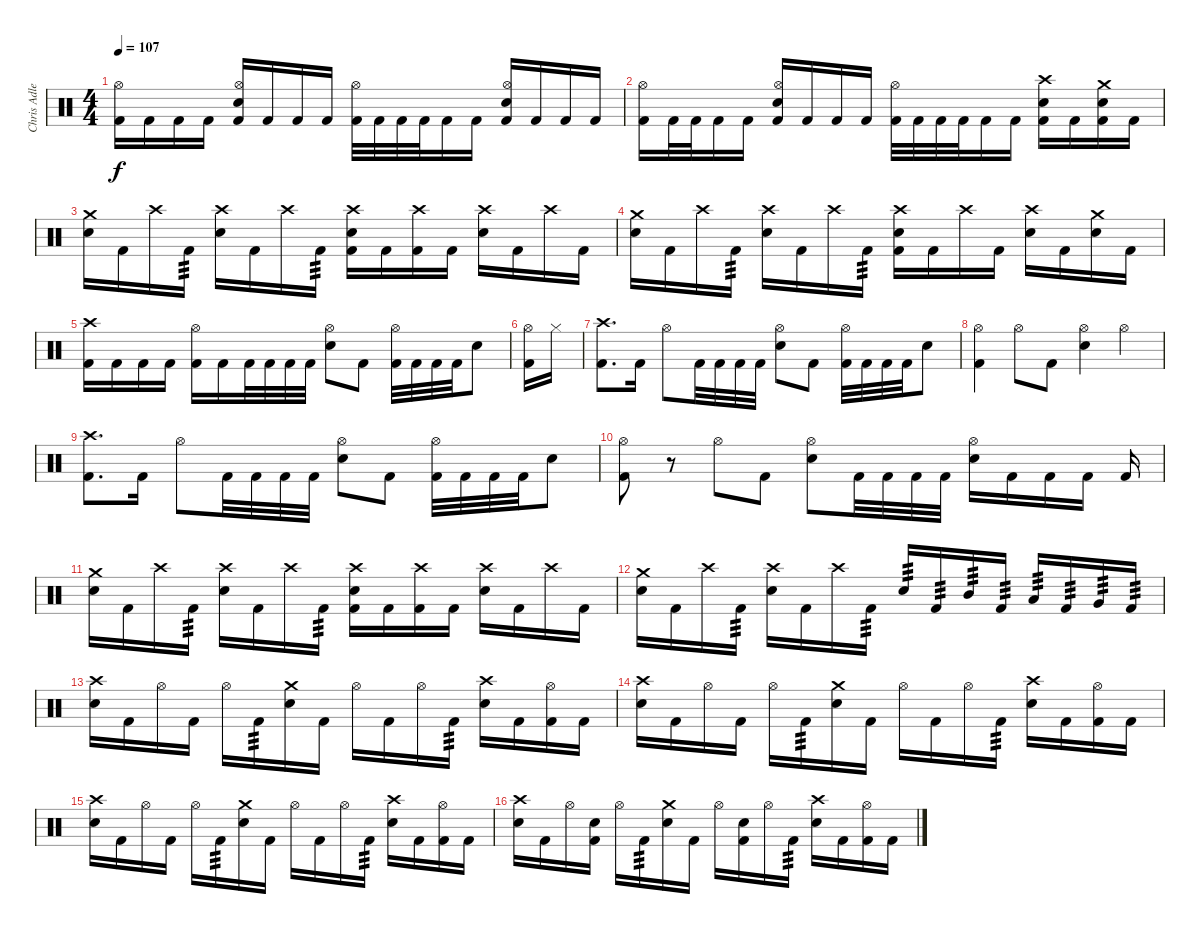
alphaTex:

\track ("Chris Adler" "Chris Adle") {instrument percussion}
\staff {score}
\articulation defaults
\ts (4 4)
\tempo 107
\clef neutral
\ks c
("Kick (hit) 2" "Hi-Hat (open)").16{dy f} "Kick (hit) 2".16 "Kick (hit) 2".16 "Kick (hit) 2".16 ("Kick (hit) 2" "Electric Snare (hit)" "Hi-Hat (open)").16 "Kick (hit) 2".16 "Kick (hit) 2".16 "Kick (hit) 2".16 ("Kick (hit) 2" "Hi-Hat (open)").32 "Kick (hit) 2".32 "Kick (hit) 2".32 "Kick (hit) 2".32 "Kick (hit) 2".16 "Kick (hit) 2".16 ("Kick (hit) 2" "Electric Snare (hit)" "Hi-Hat (open)").16 "Kick (hit) 2".16 "Kick (hit) 2".16 "Kick (hit) 2".16 |
("Kick (hit) 2" "Hi-Hat (open)").16 "Kick (hit) 2".32 "Kick (hit) 2".32 "Kick (hit) 2".16 "Kick (hit) 2".16 ("Kick (hit) 2" "Electric Snare (hit)" "Hi-Hat (open)").16 "Kick (hit) 2".16 "Kick (hit) 2".16 "Kick (hit) 2".16 ("Kick (hit) 2" "Hi-Hat (open)").32 "Kick (hit) 2".32 "Kick (hit) 2".32 "Kick (hit) 2".32 "Kick (hit) 2".16 "Kick (hit) 2".16 ("Kick (hit) 2" "Electric Snare (hit)" "Crash high (hit)").16 "Kick (hit) 2".16 ("Kick (hit) 2" "Electric Snare (hit)" "Crash medium (hit)").16 "Kick (hit) 2".16 |
("Electric Snare (hit)" "Crash medium (hit)").16 "Kick (hit) 2".16 "Crash high (hit)".16 "Kick (hit) 2".16{tp 3} ("Electric Snare (hit)" "Crash high (hit)").16 "Kick (hit) 2".16 "Crash high (hit)".16 "Kick (hit) 2".16{tp 3} ("Kick (hit) 2" "Electric Snare (hit)" "Crash high (hit)").16 "Kick (hit) 2".16 ("Kick (hit) 2" "Crash high (hit)").16 "Kick (hit) 2".16 ("Electric Snare (hit)" "Crash high (hit)").16 "Kick (hit) 2".16 "Crash high (hit)".16 "Kick (hit) 2".16 |
("Electric Snare (hit)" "Crash medium (hit)").16 "Kick (hit) 2".16 "Crash high (hit)".16 "Kick (hit) 2".16{tp 3} ("Electric Snare (hit)" "Crash high (hit)").16 "Kick (hit) 2".16 "Crash high (hit)".16 "Kick (hit) 2".16{tp 3} ("Kick (hit) 2" "Electric Snare (hit)" "Crash high (hit)").16 "Kick (hit) 2".16 "Crash high (hit)".16 "Kick (hit) 2".16 ("Electric Snare (hit)" "Crash high (hit)").16 "Kick (hit) 2".16 ("Electric Snare (hit)" "Crash medium (hit)").16 "Kick (hit) 2".16 |
("Kick (hit) 2" "Crash high (hit)").16 "Kick (hit) 2".16 "Kick (hit) 2".16 "Kick (hit) 2".16 ("Kick (hit) 2" "Hi-Hat (open)").16 "Kick (hit) 2".16 "Kick (hit) 2".32 "Kick (hit) 2".32 "Kick (hit) 2".32 "Kick (hit) 2".32 ("Electric Snare (hit)" "Hi-Hat (open)").8 "Kick (hit) 2".8 ("Kick (hit) 2" "Hi-Hat (open)").32 "Kick (hit) 2".32 "Kick (hit) 2".32 "Kick (hit) 2".32 "Electric Snare (hit)".8 |
("Kick (hit) 2" "Hi-Hat (open)").16 "Hi-Hat (closed)".16 |
("Kick (hit) 2" "Crash high (hit)").8{d} "Kick (hit) 2".16 "Hi-Hat (open)".8 "Kick (hit) 2".32 "Kick (hit) 2".32 "Kick (hit) 2".32 "Kick (hit) 2".32 ("Electric Snare (hit)" "Hi-Hat (open)").8 "Kick (hit) 2".8 ("Kick (hit) 2" "Hi-Hat (open)").32 "Kick (hit) 2".32 "Kick (hit) 2".32 "Kick (hit) 2".32 "Electric Snare (hit)".8 |
("Kick (hit) 2" "Hi-Hat (open)").4 "Hi-Hat (open)".8 "Kick (hit) 2".8 ("Electric Snare (hit)" "Hi-Hat (open)").4 "Hi-Hat (open)".4 |
("Kick (hit) 2" "Crash high (hit)").8{d} "Kick (hit) 2".16 "Hi-Hat (open)".8 "Kick (hit) 2".32 "Kick (hit) 2".32 "Kick (hit) 2".32 "Kick (hit) 2".32 ("Electric Snare (hit)" "Hi-Hat (open)").8 "Kick (hit) 2".8 ("Kick (hit) 2" "Hi-Hat (open)").32 "Kick (hit) 2".32 "Kick (hit) 2".32 "Kick (hit) 2".32 "Electric Snare (hit)".8 |
("Kick (hit) 2" "Hi-Hat (open)").8 r.8 "Hi-Hat (open)".8 "Kick (hit) 2".8 ("Electric Snare (hit)" "Hi-Hat (open)").8 "Kick (hit) 2".32 "Kick (hit) 2".32 "Kick (hit) 2".32 "Kick (hit) 2".32 ("Electric Snare (hit)" "Hi-Hat (open)").16 "Kick (hit) 2".16 "Kick (hit) 2".16 "Kick (hit) 2".16 "Kick (hit) 2".16 |
("Electric Snare (hit)" "Crash medium (hit)").16 "Kick (hit) 2".16 "Crash high (hit)".16 "Kick (hit) 2".16{tp 3} ("Electric Snare (hit)" "Crash high (hit)").16 "Kick (hit) 2".16 "Crash high (hit)".16 "Kick (hit) 2".16{tp 3} ("Kick (hit) 2" "Electric Snare (hit)" "Crash high (hit)").16 "Kick (hit) 2".16 ("Kick (hit) 2" "Crash high (hit)").16 "Kick (hit) 2".16 ("Electric Snare (hit)" "Crash high (hit)").16 "Kick (hit) 2".16 "Crash high (hit)".16 "Kick (hit) 2".16 |
("Electric Snare (hit)" "Crash medium (hit)").16 "Kick (hit) 2".16 "Crash high (hit)".16 "Kick (hit) 2".16{tp 3} ("Electric Snare (hit)" "Crash high (hit)").16 "Kick (hit) 2".16 "Crash high (hit)".16 "Kick (hit) 2".16{tp 3} "Electric Snare (hit)".16{tp 3} "Kick (hit) 2".16{tp 3} "Mid Tom (hit)".16{tp 3} "Kick (hit) 2".16{tp 3} "Low Tom (hit)".16{tp 3} "Kick (hit) 2".16{tp 3} "Very Low Tom (hit)".16{tp 3} "Kick (hit) 2".16{tp 3} |
("Electric Snare (hit)" "Crash high (hit)").16 "Kick (hit) 2".16 "Hi-Hat (open)".16 "Kick (hit) 2".16 "Hi-Hat (open)".16 "Kick (hit) 2".16{tp 3} ("Electric Snare (hit)" "Crash medium (hit)").16 "Kick (hit) 2".16 "Hi-Hat (open)".16 "Kick (hit) 2".16 "Hi-Hat (open)".16 "Kick (hit) 2".16{tp 3} ("Electric Snare (hit)" "Crash high (hit)").16 "Kick (hit) 2".16 ("Kick (hit) 2" "Hi-Hat (open)").16 "Kick (hit) 2".16 |
("Electric Snare (hit)" "Crash high (hit)").16 "Kick (hit) 2".16 "Hi-Hat (open)".16 "Kick (hit) 2".16 "Hi-Hat (open)".16 "Kick (hit) 2".16{tp 3} ("Electric Snare (hit)" "Crash medium (hit)").16 "Kick (hit) 2".16 "Hi-Hat (open)".16 "Kick (hit) 2".16 "Hi-Hat (open)".16 "Kick (hit) 2".16{tp 3} ("Electric Snare (hit)" "Crash high (hit)").16 "Kick (hit) 2".16 ("Kick (hit) 2" "Hi-Hat (open)").16 "Kick (hit) 2".16 |
("Electric Snare (hit)" "Crash high (hit)").16 "Kick (hit) 2".16 "Hi-Hat (open)".16 "Kick (hit) 2".16 "Hi-Hat (open)".16 "Kick (hit) 2".16{tp 3} ("Electric Snare (hit)" "Crash medium (hit)").16 "Kick (hit) 2".16 "Hi-Hat (open)".16 "Kick (hit) 2".16 "Hi-Hat (open)".16 "Kick (hit) 2".16{tp 3} ("Electric Snare (hit)" "Crash high (hit)").16 "Kick (hit) 2".16 ("Kick (hit) 2" "Hi-Hat (open)").16 "Kick (hit) 2".16 |
("Electric Snare (hit)" "Crash high (hit)").16 "Kick (hit) 2".16 "Hi-Hat (open)".16 ("Kick (hit) 2" "Electric Snare (hit)").16 "Hi-Hat (open)".16 "Kick (hit) 2".16{tp 3} ("Electric Snare (hit)" "Crash medium (hit)").16 "Kick (hit) 2".16 "Hi-Hat (open)".16 ("Kick (hit) 2" "Electric Snare (hit)").16 "Hi-Hat (open)".16 "Kick (hit) 2".16{tp 3} ("Electric Snare (hit)" "Crash high (hit)").16 "Kick (hit) 2".16 ("Kick (hit) 2" "Hi-Hat (open)").16 "Kick (hit) 2".16
